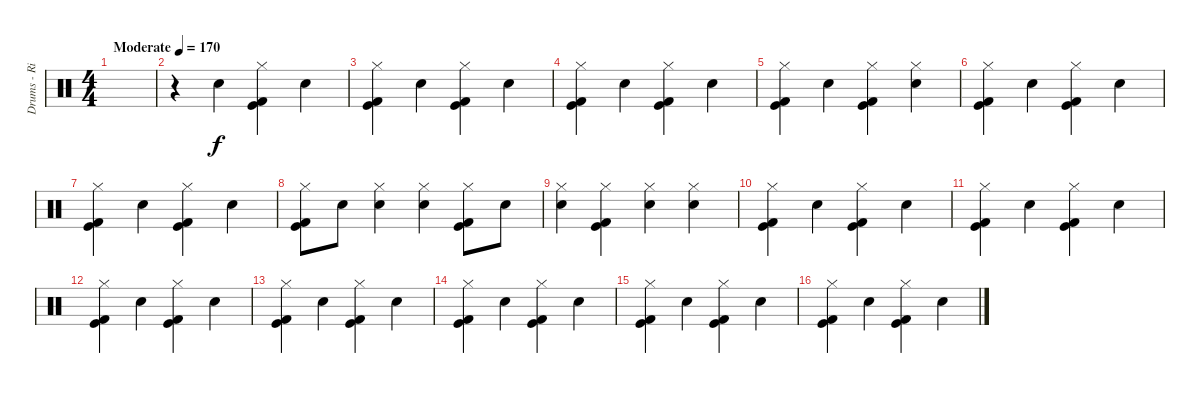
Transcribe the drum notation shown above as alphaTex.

\track ("Drums - Ringo Starr" "Drums - Ri") {instrument percussion}
\staff {score}
\articulation defaults
\ts (4 4)
\tempo (170 "Moderate")
\clef neutral
\ks c
|
r.4 "Snare (hit) 2".4 ("Kick (hit)" "Kick (hit) 2" "Hi-Hat (closed)").4 "Snare (hit) 2".4 |
("Kick (hit)" "Kick (hit) 2" "Hi-Hat (closed)").4 "Snare (hit) 2".4 ("Kick (hit)" "Kick (hit) 2" "Hi-Hat (closed)").4 "Snare (hit) 2".4 |
("Kick (hit)" "Kick (hit) 2" "Hi-Hat (closed)").4 "Snare (hit) 2".4 ("Kick (hit)" "Kick (hit) 2" "Hi-Hat (closed)").4 "Snare (hit) 2".4 |
("Kick (hit)" "Kick (hit) 2" "Hi-Hat (closed)").4 "Snare (hit) 2".4 ("Kick (hit)" "Kick (hit) 2" "Hi-Hat (closed)").4 ("Snare (hit) 2" "Hi-Hat (closed)").4 |
("Kick (hit)" "Kick (hit) 2" "Hi-Hat (closed)").4 "Snare (hit) 2".4 ("Kick (hit)" "Kick (hit) 2" "Hi-Hat (closed)").4 "Snare (hit) 2".4 |
("Kick (hit)" "Kick (hit) 2" "Hi-Hat (closed)").4 "Snare (hit) 2".4 ("Kick (hit)" "Kick (hit) 2" "Hi-Hat (closed)").4 "Snare (hit) 2".4 |
("Kick (hit)" "Kick (hit) 2" "Hi-Hat (closed)").8 "Snare (hit) 2".8 ("Snare (hit) 2" "Hi-Hat (closed)").4 ("Snare (hit) 2" "Hi-Hat (closed)").4 ("Kick (hit)" "Kick (hit) 2" "Hi-Hat (closed)").8 "Snare (hit) 2".8 |
("Snare (hit) 2" "Hi-Hat (closed)").4 ("Kick (hit)" "Kick (hit) 2" "Hi-Hat (closed)").4 ("Snare (hit) 2" "Hi-Hat (closed)").4 ("Snare (hit) 2" "Hi-Hat (closed)").4 |
("Kick (hit)" "Kick (hit) 2" "Hi-Hat (closed)").4 "Snare (hit) 2".4 ("Kick (hit)" "Kick (hit) 2" "Hi-Hat (closed)").4 "Snare (hit) 2".4 |
("Kick (hit)" "Kick (hit) 2" "Hi-Hat (closed)").4 "Snare (hit) 2".4 ("Kick (hit)" "Kick (hit) 2" "Hi-Hat (closed)").4 "Snare (hit) 2".4 |
("Kick (hit)" "Kick (hit) 2" "Hi-Hat (closed)").4 "Snare (hit) 2".4 ("Kick (hit)" "Kick (hit) 2" "Hi-Hat (closed)").4 "Snare (hit) 2".4 |
("Kick (hit)" "Kick (hit) 2" "Hi-Hat (closed)").4 "Snare (hit) 2".4 ("Kick (hit)" "Kick (hit) 2" "Hi-Hat (closed)").4 "Snare (hit) 2".4 |
("Kick (hit)" "Kick (hit) 2" "Hi-Hat (closed)").4 "Snare (hit) 2".4 ("Kick (hit)" "Kick (hit) 2" "Hi-Hat (closed)").4 "Snare (hit) 2".4 |
("Kick (hit)" "Kick (hit) 2" "Hi-Hat (closed)").4 "Snare (hit) 2".4 ("Kick (hit)" "Kick (hit) 2" "Hi-Hat (closed)").4 "Snare (hit) 2".4 |
("Kick (hit)" "Kick (hit) 2" "Hi-Hat (closed)").4 "Snare (hit) 2".4 ("Kick (hit)" "Kick (hit) 2" "Hi-Hat (closed)").4 "Snare (hit) 2".4
